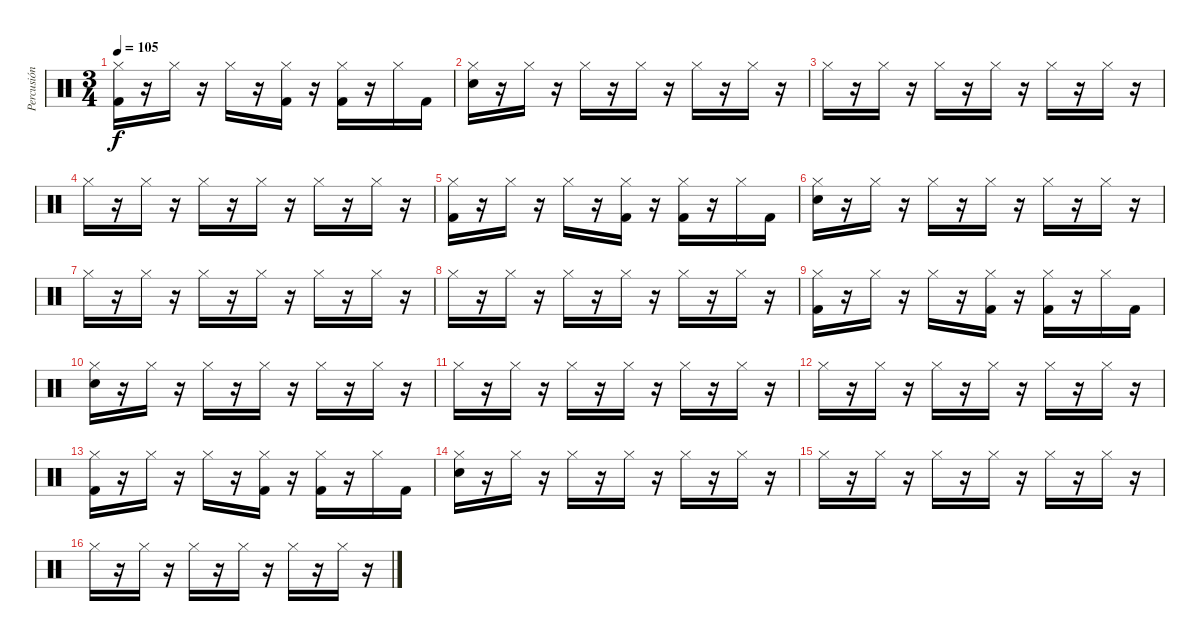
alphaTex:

\track ("Percusión" "Percusión") {instrument percussion}
\staff {score}
\articulation defaults
\ts (3 4)
\tempo 105
\clef neutral
\ks c
("Hi-Hat (closed)" "Kick (hit) 2").16{dy f} r.16 "Hi-Hat (closed)".16 r.16 "Hi-Hat (closed)".16 r.16 ("Hi-Hat (closed)" "Kick (hit) 2").16 r.16 ("Hi-Hat (closed)" "Kick (hit) 2").16 r.16 "Hi-Hat (closed)".16 "Kick (hit) 2".16 |
("Hi-Hat (closed)" "Snare (hit) 2").16 r.16 "Hi-Hat (closed)".16 r.16 "Hi-Hat (closed)".16 r.16 "Hi-Hat (closed)".16 r.16 "Hi-Hat (closed)".16 r.16 "Hi-Hat (closed)".16 r.16 |
"Hi-Hat (closed)".16 r.16 "Hi-Hat (closed)".16 r.16 "Hi-Hat (closed)".16 r.16 "Hi-Hat (closed)".16 r.16 "Hi-Hat (closed)".16 r.16 "Hi-Hat (closed)".16 r.16 |
"Hi-Hat (closed)".16 r.16 "Hi-Hat (closed)".16 r.16 "Hi-Hat (closed)".16 r.16 "Hi-Hat (closed)".16 r.16 "Hi-Hat (closed)".16 r.16 "Hi-Hat (closed)".16 r.16 |
("Hi-Hat (closed)" "Kick (hit) 2").16 r.16 "Hi-Hat (closed)".16 r.16 "Hi-Hat (closed)".16 r.16 ("Hi-Hat (closed)" "Kick (hit) 2").16 r.16 ("Hi-Hat (closed)" "Kick (hit) 2").16 r.16 "Hi-Hat (closed)".16 "Kick (hit) 2".16 |
("Hi-Hat (closed)" "Snare (hit) 2").16 r.16 "Hi-Hat (closed)".16 r.16 "Hi-Hat (closed)".16 r.16 "Hi-Hat (closed)".16 r.16 "Hi-Hat (closed)".16 r.16 "Hi-Hat (closed)".16 r.16 |
"Hi-Hat (closed)".16 r.16 "Hi-Hat (closed)".16 r.16 "Hi-Hat (closed)".16 r.16 "Hi-Hat (closed)".16 r.16 "Hi-Hat (closed)".16 r.16 "Hi-Hat (closed)".16 r.16 |
"Hi-Hat (closed)".16 r.16 "Hi-Hat (closed)".16 r.16 "Hi-Hat (closed)".16 r.16 "Hi-Hat (closed)".16 r.16 "Hi-Hat (closed)".16 r.16 "Hi-Hat (closed)".16 r.16 |
("Hi-Hat (closed)" "Kick (hit) 2").16 r.16 "Hi-Hat (closed)".16 r.16 "Hi-Hat (closed)".16 r.16 ("Hi-Hat (closed)" "Kick (hit) 2").16 r.16 ("Hi-Hat (closed)" "Kick (hit) 2").16 r.16 "Hi-Hat (closed)".16 "Kick (hit) 2".16 |
("Hi-Hat (closed)" "Snare (hit) 2").16 r.16 "Hi-Hat (closed)".16 r.16 "Hi-Hat (closed)".16 r.16 "Hi-Hat (closed)".16 r.16 "Hi-Hat (closed)".16 r.16 "Hi-Hat (closed)".16 r.16 |
"Hi-Hat (closed)".16 r.16 "Hi-Hat (closed)".16 r.16 "Hi-Hat (closed)".16 r.16 "Hi-Hat (closed)".16 r.16 "Hi-Hat (closed)".16 r.16 "Hi-Hat (closed)".16 r.16 |
"Hi-Hat (closed)".16 r.16 "Hi-Hat (closed)".16 r.16 "Hi-Hat (closed)".16 r.16 "Hi-Hat (closed)".16 r.16 "Hi-Hat (closed)".16 r.16 "Hi-Hat (closed)".16 r.16 |
("Hi-Hat (closed)" "Kick (hit) 2").16 r.16 "Hi-Hat (closed)".16 r.16 "Hi-Hat (closed)".16 r.16 ("Hi-Hat (closed)" "Kick (hit) 2").16 r.16 ("Hi-Hat (closed)" "Kick (hit) 2").16 r.16 "Hi-Hat (closed)".16 "Kick (hit) 2".16 |
("Hi-Hat (closed)" "Snare (hit) 2").16 r.16 "Hi-Hat (closed)".16 r.16 "Hi-Hat (closed)".16 r.16 "Hi-Hat (closed)".16 r.16 "Hi-Hat (closed)".16 r.16 "Hi-Hat (closed)".16 r.16 |
"Hi-Hat (closed)".16 r.16 "Hi-Hat (closed)".16 r.16 "Hi-Hat (closed)".16 r.16 "Hi-Hat (closed)".16 r.16 "Hi-Hat (closed)".16 r.16 "Hi-Hat (closed)".16 r.16 |
"Hi-Hat (closed)".16 r.16 "Hi-Hat (closed)".16 r.16 "Hi-Hat (closed)".16 r.16 "Hi-Hat (closed)".16 r.16 "Hi-Hat (closed)".16 r.16 "Hi-Hat (closed)".16 r.16
